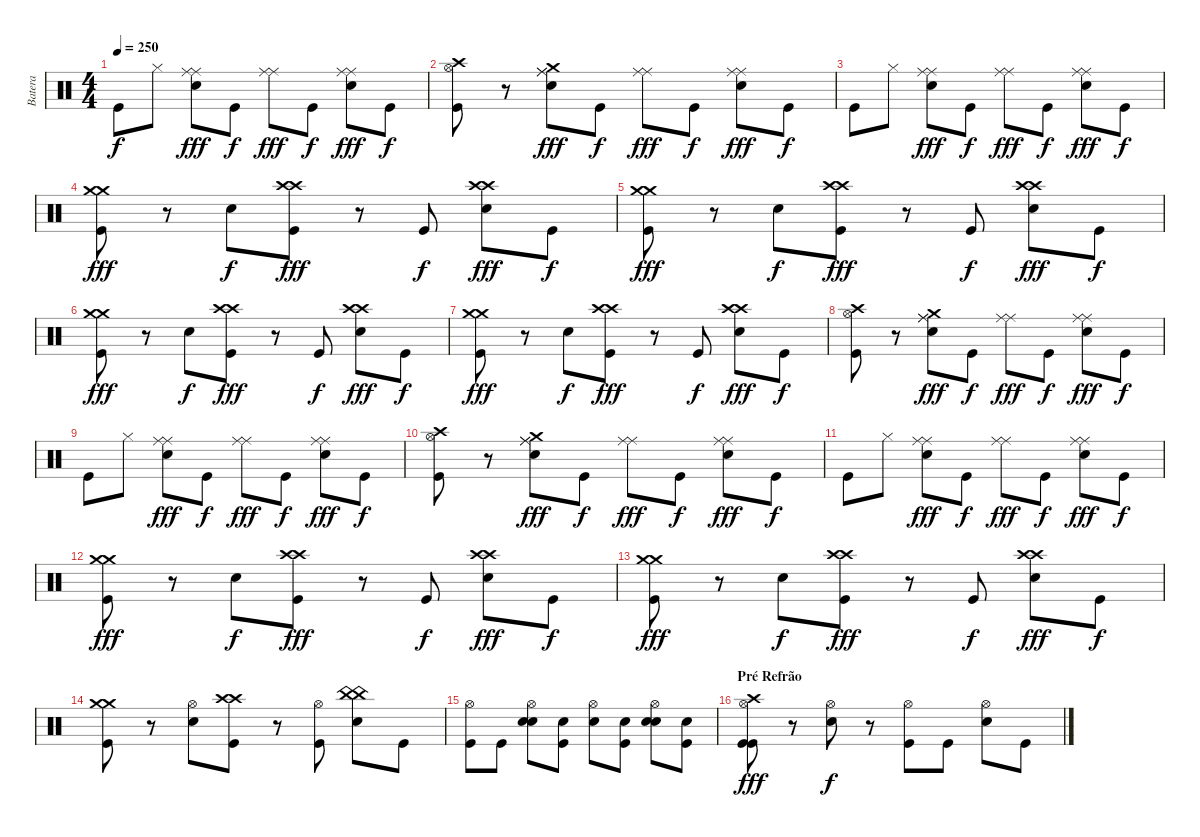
\track ("Batera" "Batera") {instrument percussion}
\staff {score}
\articulation defaults
\ts (4 4)
\tempo 250
\clef neutral
\ks c "Kick (hit)".8{dy f} "Hi-Hat (closed)".8
("Ride (middle)" "Ride (middle)" "Electric Snare (hit)").8{dy fff} "Kick (hit)".8{dy f} ("Ride (middle)" "Ride (middle)").8{dy fff} "Kick (hit)".8{dy f} ("Ride (middle)" "Ride (middle)" "Electric Snare (hit)").8{dy fff} "Kick (hit)".8{dy f} |
("Crash high (hit)" "Hi-Hat (open)" "Kick (hit)").8 r.8 ("Crash medium (hit)" "Ride (middle)" "Ride (middle)" "Electric Snare (hit)").8{dy fff} "Kick (hit)".8{dy f} ("Ride (middle)" "Ride (middle)").8{dy fff} "Kick (hit)".8{dy f} ("Ride (middle)" "Ride (middle)" "Electric Snare (hit)").8{dy fff} "Kick (hit)".8{dy f} |
"Kick (hit)".8 "Hi-Hat (closed)".8 ("Ride (middle)" "Ride (middle)" "Electric Snare (hit)").8{dy fff} "Kick (hit)".8{dy f} ("Ride (middle)" "Ride (middle)").8{dy fff} "Kick (hit)".8{dy f} ("Ride (middle)" "Ride (middle)" "Electric Snare (hit)").8{dy fff} "Kick (hit)".8{dy f} |
("Crash medium (hit)" "Crash medium (hit)" "Kick (hit)").8{dy fff} r.8 "Electric Snare (hit)".8{dy f} ("Crash high (hit)" "Crash high (hit)" "Kick (hit)").8{dy fff} r.8 "Kick (hit)".8{dy f} ("Crash high (hit)" "Crash high (hit)" "Electric Snare (hit)").8{dy fff} "Kick (hit)".8{dy f} |
("Crash medium (hit)" "Crash medium (hit)" "Kick (hit)").8{dy fff} r.8 "Electric Snare (hit)".8{dy f} ("Crash high (hit)" "Crash high (hit)" "Kick (hit)").8{dy fff} r.8 "Kick (hit)".8{dy f} ("Crash high (hit)" "Crash high (hit)" "Electric Snare (hit)").8{dy fff} "Kick (hit)".8{dy f} |
("Crash medium (hit)" "Crash medium (hit)" "Kick (hit)").8{dy fff} r.8 "Electric Snare (hit)".8{dy f} ("Crash high (hit)" "Crash high (hit)" "Kick (hit)").8{dy fff} r.8 "Kick (hit)".8{dy f} ("Crash high (hit)" "Crash high (hit)" "Electric Snare (hit)").8{dy fff} "Kick (hit)".8{dy f} |
("Crash medium (hit)" "Crash medium (hit)" "Kick (hit)").8{dy fff} r.8 "Electric Snare (hit)".8{dy f} ("Crash high (hit)" "Crash high (hit)" "Kick (hit)").8{dy fff} r.8 "Kick (hit)".8{dy f} ("Crash high (hit)" "Crash high (hit)" "Electric Snare (hit)").8{dy fff} "Kick (hit)".8{dy f} |
("Crash high (hit)" "Hi-Hat (open)" "Kick (hit)").8 r.8 ("Crash medium (hit)" "Ride (middle)" "Ride (middle)" "Electric Snare (hit)").8{dy fff} "Kick (hit)".8{dy f} ("Ride (middle)" "Ride (middle)").8{dy fff} "Kick (hit)".8{dy f} ("Ride (middle)" "Ride (middle)" "Electric Snare (hit)").8{dy fff} "Kick (hit)".8{dy f} |
"Kick (hit)".8 "Hi-Hat (closed)".8 ("Ride (middle)" "Ride (middle)" "Electric Snare (hit)").8{dy fff} "Kick (hit)".8{dy f} ("Ride (middle)" "Ride (middle)").8{dy fff} "Kick (hit)".8{dy f} ("Ride (middle)" "Ride (middle)" "Electric Snare (hit)").8{dy fff} "Kick (hit)".8{dy f} |
("Crash high (hit)" "Hi-Hat (open)" "Kick (hit)").8 r.8 ("Crash medium (hit)" "Ride (middle)" "Ride (middle)" "Electric Snare (hit)").8{dy fff} "Kick (hit)".8{dy f} ("Ride (middle)" "Ride (middle)").8{dy fff} "Kick (hit)".8{dy f} ("Ride (middle)" "Ride (middle)" "Electric Snare (hit)").8{dy fff} "Kick (hit)".8{dy f} |
"Kick (hit)".8 "Hi-Hat (closed)".8 ("Ride (middle)" "Ride (middle)" "Electric Snare (hit)").8{dy fff} "Kick (hit)".8{dy f} ("Ride (middle)" "Ride (middle)").8{dy fff} "Kick (hit)".8{dy f} ("Ride (middle)" "Ride (middle)" "Electric Snare (hit)").8{dy fff} "Kick (hit)".8{dy f} |
("Crash medium (hit)" "Crash medium (hit)" "Kick (hit)").8{dy fff} r.8 "Electric Snare (hit)".8{dy f} ("Crash high (hit)" "Crash high (hit)" "Kick (hit)").8{dy fff} r.8 "Kick (hit)".8{dy f} ("Crash high (hit)" "Crash high (hit)" "Electric Snare (hit)").8{dy fff} "Kick (hit)".8{dy f} |
("Crash medium (hit)" "Crash medium (hit)" "Kick (hit)").8{dy fff} r.8 "Electric Snare (hit)".8{dy f} ("Crash high (hit)" "Crash high (hit)" "Kick (hit)").8{dy fff} r.8 "Kick (hit)".8{dy f} ("Crash high (hit)" "Crash high (hit)" "Electric Snare (hit)").8{dy fff} "Kick (hit)".8{dy f} |
("Crash medium (hit)" "Crash medium (hit)" "Kick (hit)").8 r.8 ("Hi-Hat (open)" "Electric Snare (hit)").8 ("Crash high (hit)" "Crash high (hit)" "Kick (hit)").8 r.8 ("Hi-Hat (open)" "Kick (hit)").8 ("China (hit)" "China (hit)" "Electric Snare (hit)").8 "Kick (hit)".8 |
("Hi-Hat (open)" "Kick (hit)").8 "Kick (hit)".8 ("Hi-Hat (open)" "Electric Snare (hit)" "Electric Snare (hit)").8 ("Electric Snare (hit)" "Kick (hit)").8 ("Hi-Hat (open)" "Snare (hit) 2").8 ("Snare (hit) 2" "Kick (hit)").8 ("Hi-Hat (open)" "Electric Snare (hit)" "Electric Snare (hit)").8 ("Electric Snare (hit)" "Kick (hit)").8 |
\section ("" "Pré Refrão")
("Hi-Hat (open)" "Crash high (hit)" "Kick (hit)" "Kick (hit)").8{dy fff} r.8 ("Hi-Hat (open)" "Electric Snare (hit)").8{dy f} r.8 ("Hi-Hat (open)" "Kick (hit)").8 "Kick (hit)".8 ("Hi-Hat (open)" "Electric Snare (hit)").8 "Kick (hit)".8
